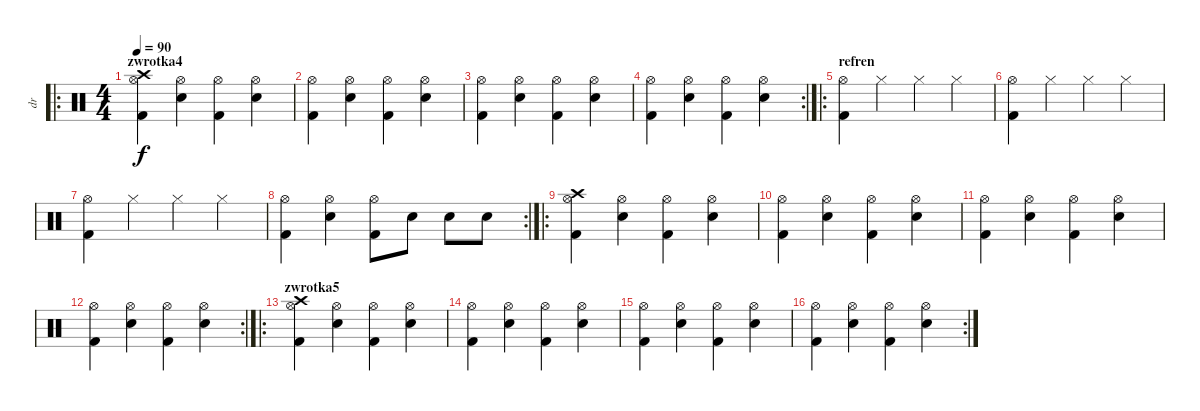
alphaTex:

\track ("dr" "dr") {instrument percussion}
\staff {score}
\articulation defaults
\ro
\ts (4 4)
\section ("" "zwrotka4")
\tempo 90
\clef neutral
\ks c
("Hi-Hat (open)" "Kick (hit) 2" "Crash high (hit)").4{dy f} ("Hi-Hat (open)" "Electric Snare (hit)").4 ("Hi-Hat (open)" "Kick (hit) 2").4 ("Hi-Hat (open)" "Electric Snare (hit)").4 |
("Hi-Hat (open)" "Kick (hit) 2").4 ("Hi-Hat (open)" "Electric Snare (hit)").4 ("Hi-Hat (open)" "Kick (hit) 2").4 ("Hi-Hat (open)" "Electric Snare (hit)").4 |
("Hi-Hat (open)" "Kick (hit) 2").4 ("Hi-Hat (open)" "Electric Snare (hit)").4 ("Hi-Hat (open)" "Kick (hit) 2").4 ("Hi-Hat (open)" "Electric Snare (hit)").4 |
\rc 2
("Hi-Hat (open)" "Kick (hit) 2").4 ("Hi-Hat (open)" "Electric Snare (hit)").4 ("Hi-Hat (open)" "Kick (hit) 2").4 ("Hi-Hat (open)" "Electric Snare (hit)").4 |
\ro
\section ("" "refren")
("Hi-Hat (open)" "Kick (hit) 2").4 "Hi-Hat (closed)".4 "Hi-Hat (closed)".4 "Hi-Hat (closed)".4 |
("Hi-Hat (open)" "Kick (hit) 2").4 "Hi-Hat (closed)".4 "Hi-Hat (closed)".4 "Hi-Hat (closed)".4 |
("Hi-Hat (open)" "Kick (hit) 2").4 "Hi-Hat (closed)".4 "Hi-Hat (closed)".4 "Hi-Hat (closed)".4 |
\rc 2
("Hi-Hat (open)" "Kick (hit) 2").4 ("Hi-Hat (open)" "Electric Snare (hit)").4 ("Hi-Hat (open)" "Kick (hit) 2").8 "Electric Snare (hit)".8 "Electric Snare (hit)".8 "Electric Snare (hit)".8 |
\ro
("Hi-Hat (open)" "Kick (hit) 2" "Crash high (hit)").4 ("Hi-Hat (open)" "Electric Snare (hit)").4 ("Hi-Hat (open)" "Kick (hit) 2").4 ("Hi-Hat (open)" "Electric Snare (hit)").4 |
("Hi-Hat (open)" "Kick (hit) 2").4 ("Hi-Hat (open)" "Electric Snare (hit)").4 ("Hi-Hat (open)" "Kick (hit) 2").4 ("Hi-Hat (open)" "Electric Snare (hit)").4 |
("Hi-Hat (open)" "Kick (hit) 2").4 ("Hi-Hat (open)" "Electric Snare (hit)").4 ("Hi-Hat (open)" "Kick (hit) 2").4 ("Hi-Hat (open)" "Electric Snare (hit)").4 |
\rc 2
("Hi-Hat (open)" "Kick (hit) 2").4 ("Hi-Hat (open)" "Electric Snare (hit)").4 ("Hi-Hat (open)" "Kick (hit) 2").4 ("Hi-Hat (open)" "Electric Snare (hit)").4 |
\ro
\section ("" "zwrotka5")
("Hi-Hat (open)" "Kick (hit) 2" "Crash high (hit)").4 ("Hi-Hat (open)" "Electric Snare (hit)").4 ("Hi-Hat (open)" "Kick (hit) 2").4 ("Hi-Hat (open)" "Electric Snare (hit)").4 |
("Hi-Hat (open)" "Kick (hit) 2").4 ("Hi-Hat (open)" "Electric Snare (hit)").4 ("Hi-Hat (open)" "Kick (hit) 2").4 ("Hi-Hat (open)" "Electric Snare (hit)").4 |
("Hi-Hat (open)" "Kick (hit) 2").4 ("Hi-Hat (open)" "Electric Snare (hit)").4 ("Hi-Hat (open)" "Kick (hit) 2").4 ("Hi-Hat (open)" "Electric Snare (hit)").4 |
\rc 2
("Hi-Hat (open)" "Kick (hit) 2").4 ("Hi-Hat (open)" "Electric Snare (hit)").4 ("Hi-Hat (open)" "Kick (hit) 2").4 ("Hi-Hat (open)" "Electric Snare (hit)").4
